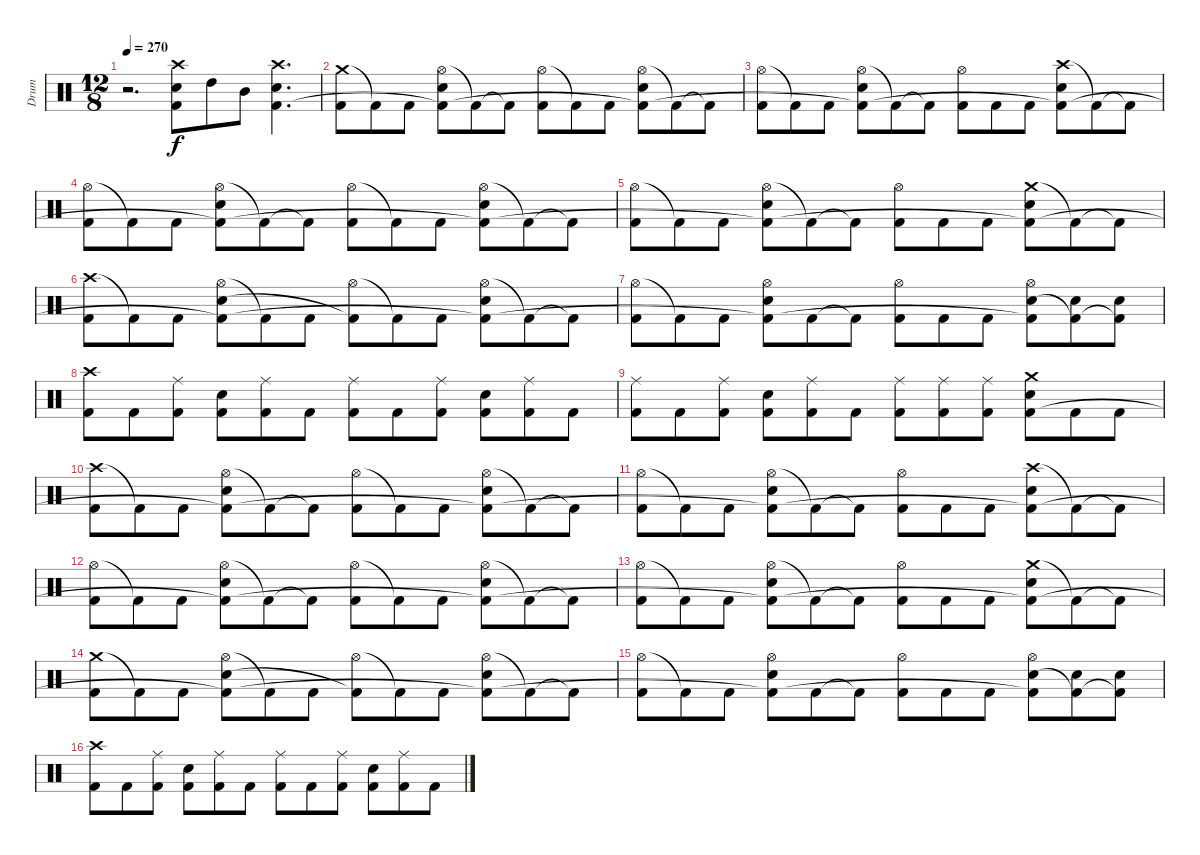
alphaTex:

\track ("Drum" "Drum") {instrument percussion}
\staff {score}
\articulation defaults
\ts (12 8)
\tempo 270
\clef neutral
\ks c
r.2{d dy f} ("Crash high (hit)" "Electric Snare (hit)" "Kick (hit) 2").8 "High Tom (hit)".8 "Mid Tom (hit)".8 ("Crash high (hit)" "Electric Snare (hit)" "Kick (hit) 2").4{d} |
("Crash medium (hit)" "Kick (hit) 2").8 "Kick (hit) 2"{t}.8 "Kick (hit) 2".8 ("Hi-Hat (open)" "Electric Snare (hit)" "Kick (hit) 2"{t}).8 "Kick (hit) 2"{t}.8 "Kick (hit) 2"{t}.8 ("Hi-Hat (open)" "Kick (hit) 2").8 "Kick (hit) 2"{t}.8 "Kick (hit) 2".8 ("Hi-Hat (open)" "Electric Snare (hit)" "Kick (hit) 2"{t}).8 "Kick (hit) 2"{t}.8 "Kick (hit) 2"{t}.8 |
("Hi-Hat (open)" "Kick (hit) 2").8 "Kick (hit) 2"{t}.8 "Kick (hit) 2".8 ("Hi-Hat (open)" "Electric Snare (hit)" "Kick (hit) 2"{t}).8 "Kick (hit) 2"{t}.8 "Kick (hit) 2"{t}.8 ("Hi-Hat (open)" "Kick (hit) 2").8 "Kick (hit) 2".8 "Kick (hit) 2".8 ("Crash high (hit)" "Electric Snare (hit)" "Kick (hit) 2"{t}).8 "Kick (hit) 2"{t}.8 "Kick (hit) 2"{t}.8 |
("Hi-Hat (open)" "Kick (hit) 2").8 "Kick (hit) 2"{t}.8 "Kick (hit) 2".8 ("Hi-Hat (open)" "Electric Snare (hit)" "Kick (hit) 2"{t}).8 "Kick (hit) 2"{t}.8 "Kick (hit) 2"{t}.8 ("Hi-Hat (open)" "Kick (hit) 2").8 "Kick (hit) 2"{t}.8 "Kick (hit) 2".8 ("Hi-Hat (open)" "Electric Snare (hit)" "Kick (hit) 2"{t}).8 "Kick (hit) 2"{t}.8 "Kick (hit) 2"{t}.8 |
("Hi-Hat (open)" "Kick (hit) 2").8 "Kick (hit) 2"{t}.8 "Kick (hit) 2".8 ("Hi-Hat (open)" "Electric Snare (hit)" "Kick (hit) 2"{t}).8 "Kick (hit) 2"{t}.8 "Kick (hit) 2"{t}.8 ("Hi-Hat (open)" "Kick (hit) 2").8 "Kick (hit) 2".8 "Kick (hit) 2".8 ("Crash medium (hit)" "Electric Snare (hit)" "Kick (hit) 2"{t}).8 "Kick (hit) 2"{t}.8 "Kick (hit) 2"{t}.8 |
("Crash high (hit)" "Kick (hit) 2").8 "Kick (hit) 2"{t}.8 "Kick (hit) 2".8 ("Hi-Hat (open)" "Electric Snare (hit)" "Kick (hit) 2"{t}).8 "Kick (hit) 2"{t}.8 "Kick (hit) 2".8 ("Hi-Hat (open)" "Kick (hit) 2"{t}).8 "Kick (hit) 2"{t}.8 "Kick (hit) 2".8 ("Hi-Hat (open)" "Electric Snare (hit)" "Kick (hit) 2"{t}).8 "Kick (hit) 2"{t}.8 "Kick (hit) 2"{t}.8 |
("Hi-Hat (open)" "Kick (hit) 2").8 "Kick (hit) 2"{t}.8 "Kick (hit) 2".8 ("Hi-Hat (open)" "Electric Snare (hit)" "Kick (hit) 2"{t}).8 "Kick (hit) 2".8 "Kick (hit) 2"{t}.8 ("Hi-Hat (open)" "Kick (hit) 2").8 "Kick (hit) 2".8 "Kick (hit) 2".8 ("Hi-Hat (open)" "Electric Snare (hit)" "Kick (hit) 2"{t}).8 ("Electric Snare (hit)" "Kick (hit) 2"{t}).8 ("Electric Snare (hit)" "Kick (hit) 2"{t}).8 |
("Crash high (hit)" "Kick (hit) 2").8 "Kick (hit) 2".8 ("Ride (middle)" "Kick (hit) 2").8 ("Electric Snare (hit)" "Kick (hit) 2").8 ("Ride (middle)" "Kick (hit) 2").8 "Kick (hit) 2".8 ("Ride (middle)" "Kick (hit) 2").8 "Kick (hit) 2".8 ("Ride (middle)" "Kick (hit) 2").8 ("Electric Snare (hit)" "Kick (hit) 2").8 ("Ride (middle)" "Kick (hit) 2").8 "Kick (hit) 2".8 |
("Ride (middle)" "Kick (hit) 2").8 "Kick (hit) 2".8 ("Ride (middle)" "Kick (hit) 2").8 ("Electric Snare (hit)" "Kick (hit) 2").8 ("Ride (middle)" "Kick (hit) 2").8 "Kick (hit) 2".8 ("Ride (middle)" "Kick (hit) 2").8 ("Ride (middle)" "Kick (hit) 2").8 ("Ride (middle)" "Kick (hit) 2").8 ("Crash medium (hit)" "Electric Snare (hit)" "Kick (hit) 2").8 "Kick (hit) 2".8 "Kick (hit) 2".8 |
("Crash high (hit)" "Kick (hit) 2").8 "Kick (hit) 2"{t}.8 "Kick (hit) 2".8 ("Hi-Hat (open)" "Electric Snare (hit)" "Kick (hit) 2"{t}).8 "Kick (hit) 2"{t}.8 "Kick (hit) 2"{t}.8 ("Hi-Hat (open)" "Kick (hit) 2").8 "Kick (hit) 2"{t}.8 "Kick (hit) 2".8 ("Hi-Hat (open)" "Electric Snare (hit)" "Kick (hit) 2"{t}).8 "Kick (hit) 2"{t}.8 "Kick (hit) 2"{t}.8 |
("Hi-Hat (open)" "Kick (hit) 2").8 "Kick (hit) 2"{t}.8 "Kick (hit) 2".8 ("Hi-Hat (open)" "Electric Snare (hit)" "Kick (hit) 2"{t}).8 "Kick (hit) 2"{t}.8 "Kick (hit) 2"{t}.8 ("Hi-Hat (open)" "Kick (hit) 2").8 "Kick (hit) 2".8 "Kick (hit) 2".8 ("Crash high (hit)" "Electric Snare (hit)" "Kick (hit) 2"{t}).8 "Kick (hit) 2"{t}.8 "Kick (hit) 2"{t}.8 |
("Hi-Hat (open)" "Kick (hit) 2").8 "Kick (hit) 2"{t}.8 "Kick (hit) 2".8 ("Hi-Hat (open)" "Electric Snare (hit)" "Kick (hit) 2"{t}).8 "Kick (hit) 2"{t}.8 "Kick (hit) 2"{t}.8 ("Hi-Hat (open)" "Kick (hit) 2").8 "Kick (hit) 2"{t}.8 "Kick (hit) 2".8 ("Hi-Hat (open)" "Electric Snare (hit)" "Kick (hit) 2"{t}).8 "Kick (hit) 2"{t}.8 "Kick (hit) 2"{t}.8 |
("Hi-Hat (open)" "Kick (hit) 2").8 "Kick (hit) 2"{t}.8 "Kick (hit) 2".8 ("Hi-Hat (open)" "Electric Snare (hit)" "Kick (hit) 2"{t}).8 "Kick (hit) 2"{t}.8 "Kick (hit) 2"{t}.8 ("Hi-Hat (open)" "Kick (hit) 2").8 "Kick (hit) 2".8 "Kick (hit) 2".8 ("Crash medium (hit)" "Electric Snare (hit)" "Kick (hit) 2"{t}).8 "Kick (hit) 2"{t}.8 "Kick (hit) 2"{t}.8 |
("Crash medium (hit)" "Kick (hit) 2").8 "Kick (hit) 2"{t}.8 "Kick (hit) 2".8 ("Hi-Hat (open)" "Electric Snare (hit)" "Kick (hit) 2"{t}).8 "Kick (hit) 2"{t}.8 "Kick (hit) 2".8 ("Hi-Hat (open)" "Kick (hit) 2"{t}).8 "Kick (hit) 2"{t}.8 "Kick (hit) 2".8 ("Hi-Hat (open)" "Electric Snare (hit)" "Kick (hit) 2"{t}).8 "Kick (hit) 2"{t}.8 "Kick (hit) 2"{t}.8 |
("Hi-Hat (open)" "Kick (hit) 2").8 "Kick (hit) 2"{t}.8 "Kick (hit) 2".8 ("Hi-Hat (open)" "Electric Snare (hit)" "Kick (hit) 2"{t}).8 "Kick (hit) 2".8 "Kick (hit) 2"{t}.8 ("Hi-Hat (open)" "Kick (hit) 2").8 "Kick (hit) 2".8 "Kick (hit) 2".8 ("Hi-Hat (open)" "Electric Snare (hit)" "Kick (hit) 2"{t}).8 ("Electric Snare (hit)" "Kick (hit) 2"{t}).8 ("Electric Snare (hit)" "Kick (hit) 2"{t}).8 |
("Crash high (hit)" "Kick (hit) 2").8 "Kick (hit) 2".8 ("Ride (middle)" "Kick (hit) 2").8 ("Electric Snare (hit)" "Kick (hit) 2").8 ("Ride (middle)" "Kick (hit) 2").8 "Kick (hit) 2".8 ("Ride (middle)" "Kick (hit) 2").8 "Kick (hit) 2".8 ("Ride (middle)" "Kick (hit) 2").8 ("Electric Snare (hit)" "Kick (hit) 2").8 ("Ride (middle)" "Kick (hit) 2").8 "Kick (hit) 2".8
